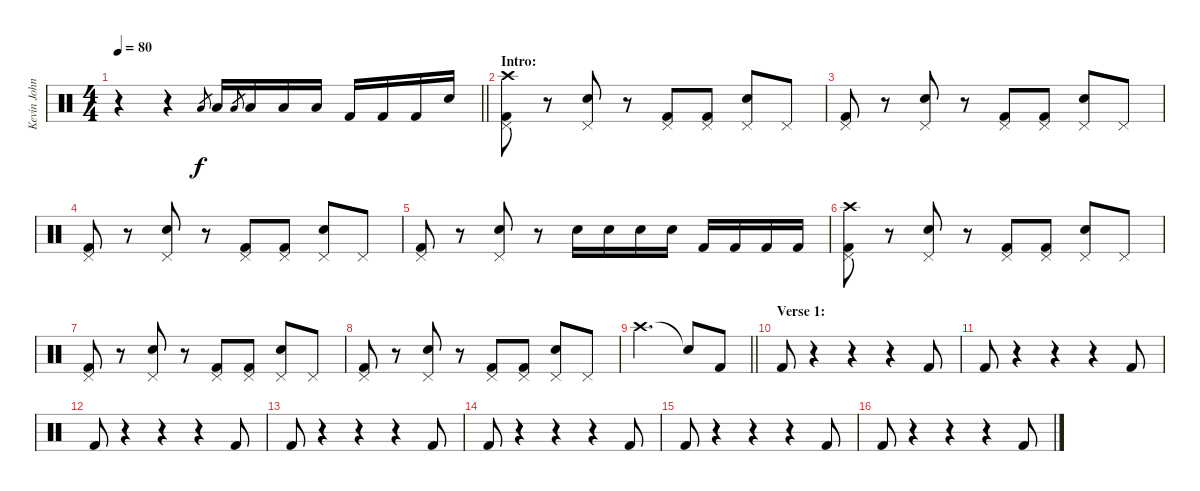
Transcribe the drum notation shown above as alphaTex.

\track ("Kevin John Grace" "Kevin John") {instrument percussion}
\staff {score}
\articulation defaults
\ts (4 4)
\tempo 80
\clef neutral
\barLineRight lightlight
\ks c
r.4{dy f} r.4 "Low Tom (hit)".8{gr} "Low Tom (hit)".16 "Low Tom (hit)".8{gr} "Low Tom (hit)".16 "Low Tom (hit)".16 "Low Tom (hit)".16 "Kick (hit) 2".16 "Kick (hit) 2".16 "Kick (hit) 2".16 "Snare (hit) 2".16 |
\section ("" "Intro:")
("Pedal Hi-Hat (hit)" "Crash high (hit)" "Kick (hit) 2").8 r.8 ("Pedal Hi-Hat (hit)" "Snare (hit) 2").8 r.8 ("Pedal Hi-Hat (hit)" "Kick (hit) 2").8 ("Pedal Hi-Hat (hit)" "Kick (hit) 2").8 ("Pedal Hi-Hat (hit)" "Snare (hit) 2").8 "Pedal Hi-Hat (hit)".8 |
("Pedal Hi-Hat (hit)" "Kick (hit) 2").8 r.8 ("Pedal Hi-Hat (hit)" "Snare (hit) 2").8 r.8 ("Pedal Hi-Hat (hit)" "Kick (hit) 2").8 ("Pedal Hi-Hat (hit)" "Kick (hit) 2").8 ("Pedal Hi-Hat (hit)" "Snare (hit) 2").8 "Pedal Hi-Hat (hit)".8 |
("Pedal Hi-Hat (hit)" "Kick (hit) 2").8 r.8 ("Pedal Hi-Hat (hit)" "Snare (hit) 2").8 r.8 ("Pedal Hi-Hat (hit)" "Kick (hit) 2").8 ("Pedal Hi-Hat (hit)" "Kick (hit) 2").8 ("Pedal Hi-Hat (hit)" "Snare (hit) 2").8 "Pedal Hi-Hat (hit)".8 |
("Pedal Hi-Hat (hit)" "Kick (hit) 2").8 r.8 ("Pedal Hi-Hat (hit)" "Snare (hit) 2").8 r.8 "Snare (hit) 2".16 "Snare (hit) 2".16 "Snare (hit) 2".16 "Snare (hit) 2".16 "Kick (hit) 2".16 "Kick (hit) 2".16 "Kick (hit) 2".16 "Kick (hit) 2".16 |
("Pedal Hi-Hat (hit)" "Crash high (hit)" "Kick (hit) 2").8 r.8 ("Pedal Hi-Hat (hit)" "Snare (hit) 2").8 r.8 ("Pedal Hi-Hat (hit)" "Kick (hit) 2").8 ("Pedal Hi-Hat (hit)" "Kick (hit) 2").8 ("Pedal Hi-Hat (hit)" "Snare (hit) 2").8 "Pedal Hi-Hat (hit)".8 |
("Pedal Hi-Hat (hit)" "Kick (hit) 2").8 r.8 ("Pedal Hi-Hat (hit)" "Snare (hit) 2").8 r.8 ("Pedal Hi-Hat (hit)" "Kick (hit) 2").8 ("Pedal Hi-Hat (hit)" "Kick (hit) 2").8 ("Pedal Hi-Hat (hit)" "Snare (hit) 2").8 "Pedal Hi-Hat (hit)".8 |
("Pedal Hi-Hat (hit)" "Kick (hit) 2").8 r.8 ("Pedal Hi-Hat (hit)" "Snare (hit) 2").8 r.8 ("Pedal Hi-Hat (hit)" "Kick (hit) 2").8 ("Pedal Hi-Hat (hit)" "Kick (hit) 2").8 ("Pedal Hi-Hat (hit)" "Snare (hit) 2").8 "Pedal Hi-Hat (hit)".8 |
\barLineRight lightlight "Crash high (hit)".2{d} "Snare (hit)"{t}.8 "Kick (hit) 2".8
|
\section ("" "Verse 1:")
"Kick (hit) 2".8 r.4 r.4 r.4 "Kick (hit) 2".8 |
"Kick (hit) 2".8 r.4 r.4 r.4 "Kick (hit) 2".8 |
"Kick (hit) 2".8 r.4 r.4 r.4 "Kick (hit) 2".8 |
"Kick (hit) 2".8 r.4 r.4 r.4 "Kick (hit) 2".8 |
"Kick (hit) 2".8 r.4 r.4 r.4 "Kick (hit) 2".8 |
"Kick (hit) 2".8 r.4 r.4 r.4 "Kick (hit) 2".8 |
"Kick (hit) 2".8 r.4 r.4 r.4 "Kick (hit) 2".8
